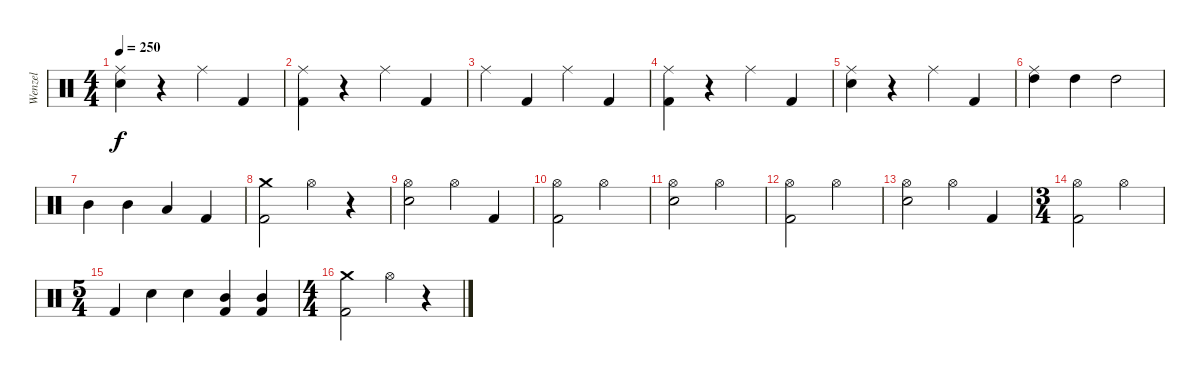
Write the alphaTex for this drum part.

\track ("Wenzel" "Wenzel") {instrument percussion}
\staff {score}
\articulation defaults
\ts (4 4)
\tempo 250
\clef neutral
\ks c
("Ride (middle)" "Snare (hit) 2").4{dy f} r.4 "Ride (middle)".4 "Kick (hit) 2".4 |
("Ride (middle)" "Kick (hit) 2").4 r.4 "Ride (middle)".4 "Kick (hit) 2".4 |
"Ride (middle)".4 "Kick (hit) 2".4 "Ride (middle)".4 "Kick (hit) 2".4 |
("Ride (middle)" "Kick (hit) 2").4 r.4 "Ride (middle)".4 "Kick (hit) 2".4 |
("Ride (middle)" "Snare (hit) 2").4 r.4 "Ride (middle)".4 "Kick (hit) 2".4 |
("High Tom (hit)" "Ride (middle)").4 "High Tom (hit)".4 "High Tom (hit)".2 |
"Mid Tom (hit)".4 "Mid Tom (hit)".4 "Low Tom (hit)".4 "Kick (hit) 2".4 |
("Crash medium (hit)" "Kick (hit) 2").2 "Hi-Hat (open)".4 r.4 |
("Hi-Hat (open)" "Snare (hit) 2").2 "Hi-Hat (open)".4 "Kick (hit) 2".4 |
("Hi-Hat (open)" "Kick (hit) 2").2 "Hi-Hat (open)".2 |
("Hi-Hat (open)" "Snare (hit) 2").2 "Hi-Hat (open)".2 |
("Hi-Hat (open)" "Kick (hit) 2").2 "Hi-Hat (open)".2 |
("Hi-Hat (open)" "Snare (hit) 2").2 "Hi-Hat (open)".4 "Kick (hit) 2".4 |
\ts (3 4)
("Hi-Hat (open)" "Kick (hit) 2").2 "Hi-Hat (open)".4 |
\ts (5 4)
"Kick (hit) 2".4 "Snare (hit) 2".4 "Snare (hit) 2".4 ("Mid Tom (hit)" "Kick (hit) 2").4 ("Mid Tom (hit)" "Kick (hit) 2").4 |
\ts (4 4)
("Crash medium (hit)" "Kick (hit) 2").2 "Hi-Hat (open)".4 r.4
